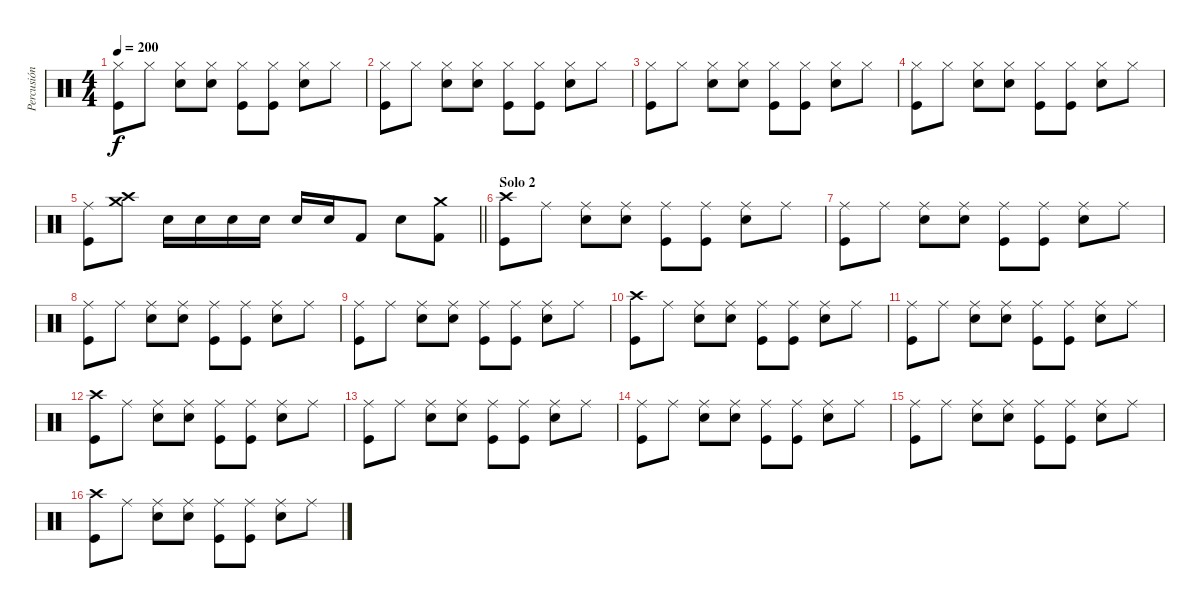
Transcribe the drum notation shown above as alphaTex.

\track ("Percusión" "Percusión") {instrument percussion}
\staff {score}
\articulation defaults
\ts (4 4)
\tempo 200
\clef neutral
\ks c
("Hi-Hat (closed)" "Kick (hit)").8{dy f} "Hi-Hat (closed)".8 ("Hi-Hat (closed)" "Snare (hit) 2").8 ("Hi-Hat (closed)" "Snare (hit) 2").8 ("Hi-Hat (closed)" "Kick (hit)").8 ("Hi-Hat (closed)" "Kick (hit)").8 ("Hi-Hat (closed)" "Snare (hit) 2").8 "Hi-Hat (closed)".8 |
("Hi-Hat (closed)" "Kick (hit)").8 "Hi-Hat (closed)".8 ("Hi-Hat (closed)" "Snare (hit) 2").8 ("Hi-Hat (closed)" "Snare (hit) 2").8 ("Hi-Hat (closed)" "Kick (hit)").8 ("Hi-Hat (closed)" "Kick (hit)").8 ("Hi-Hat (closed)" "Snare (hit) 2").8 "Hi-Hat (closed)".8 |
("Hi-Hat (closed)" "Kick (hit)").8 "Hi-Hat (closed)".8 ("Hi-Hat (closed)" "Snare (hit) 2").8 ("Hi-Hat (closed)" "Snare (hit) 2").8 ("Hi-Hat (closed)" "Kick (hit)").8 ("Hi-Hat (closed)" "Kick (hit)").8 ("Hi-Hat (closed)" "Snare (hit) 2").8 "Hi-Hat (closed)".8 |
("Hi-Hat (closed)" "Kick (hit)").8 "Hi-Hat (closed)".8 ("Hi-Hat (closed)" "Snare (hit) 2").8 ("Hi-Hat (closed)" "Snare (hit) 2").8 ("Hi-Hat (closed)" "Kick (hit)").8 ("Hi-Hat (closed)" "Kick (hit)").8 ("Hi-Hat (closed)" "Snare (hit) 2").8 "Hi-Hat (closed)".8 |
\barLineRight lightlight
("Ride (middle)" "Kick (hit)").8 ("Crash high (hit)" "Crash medium (hit)").8 "Snare (hit) 2".16 "Snare (hit) 2".16 "Snare (hit) 2".16 "Snare (hit) 2".16 "Snare (hit) 2".16 "Snare (hit) 2".16 "Kick (hit) 2".8 "Snare (hit) 2".8 ("Crash medium (hit)" "Kick (hit) 2").8 |
\section ("" "Solo 2")
("Crash high (hit)" "Kick (hit)").8 "Ride (middle)".8 ("Ride (middle)" "Snare (hit) 2").8 ("Ride (middle)" "Snare (hit) 2").8 ("Ride (middle)" "Kick (hit)").8 ("Ride (middle)" "Kick (hit)").8 ("Ride (middle)" "Snare (hit) 2").8 "Ride (middle)".8 |
("Ride (middle)" "Kick (hit)").8 "Ride (middle)".8 ("Ride (middle)" "Snare (hit) 2").8 ("Ride (middle)" "Snare (hit) 2").8 ("Ride (middle)" "Kick (hit)").8 ("Ride (middle)" "Kick (hit)").8 ("Ride (middle)" "Snare (hit) 2").8 "Ride (middle)".8 |
("Ride (middle)" "Kick (hit)").8 "Ride (middle)".8 ("Ride (middle)" "Snare (hit) 2").8 ("Ride (middle)" "Snare (hit) 2").8 ("Ride (middle)" "Kick (hit)").8 ("Ride (middle)" "Kick (hit)").8 ("Ride (middle)" "Snare (hit) 2").8 "Ride (middle)".8 |
("Ride (middle)" "Kick (hit)").8 "Ride (middle)".8 ("Ride (middle)" "Snare (hit) 2").8 ("Ride (middle)" "Snare (hit) 2").8 ("Ride (middle)" "Kick (hit)").8 ("Ride (middle)" "Kick (hit)").8 ("Ride (middle)" "Snare (hit) 2").8 "Ride (middle)".8 |
("Crash high (hit)" "Kick (hit)").8 "Ride (middle)".8 ("Ride (middle)" "Snare (hit) 2").8 ("Ride (middle)" "Snare (hit) 2").8 ("Ride (middle)" "Kick (hit)").8 ("Ride (middle)" "Kick (hit)").8 ("Ride (middle)" "Snare (hit) 2").8 "Ride (middle)".8 |
("Ride (middle)" "Kick (hit)").8 "Ride (middle)".8 ("Ride (middle)" "Snare (hit) 2").8 ("Ride (middle)" "Snare (hit) 2").8 ("Ride (middle)" "Kick (hit)").8 ("Ride (middle)" "Kick (hit)").8 ("Ride (middle)" "Snare (hit) 2").8 "Ride (middle)".8 |
("Crash high (hit)" "Kick (hit)").8 "Ride (middle)".8 ("Ride (middle)" "Snare (hit) 2").8 ("Ride (middle)" "Snare (hit) 2").8 ("Ride (middle)" "Kick (hit)").8 ("Ride (middle)" "Kick (hit)").8 ("Ride (middle)" "Snare (hit) 2").8 "Ride (middle)".8 |
("Ride (middle)" "Kick (hit)").8 "Ride (middle)".8 ("Ride (middle)" "Snare (hit) 2").8 ("Ride (middle)" "Snare (hit) 2").8 ("Ride (middle)" "Kick (hit)").8 ("Ride (middle)" "Kick (hit)").8 ("Ride (middle)" "Snare (hit) 2").8 "Ride (middle)".8 |
("Ride (middle)" "Kick (hit)").8 "Ride (middle)".8 ("Ride (middle)" "Snare (hit) 2").8 ("Ride (middle)" "Snare (hit) 2").8 ("Ride (middle)" "Kick (hit)").8 ("Ride (middle)" "Kick (hit)").8 ("Ride (middle)" "Snare (hit) 2").8 "Ride (middle)".8 |
("Ride (middle)" "Kick (hit)").8 "Ride (middle)".8 ("Ride (middle)" "Snare (hit) 2").8 ("Ride (middle)" "Snare (hit) 2").8 ("Ride (middle)" "Kick (hit)").8 ("Ride (middle)" "Kick (hit)").8 ("Ride (middle)" "Snare (hit) 2").8 "Ride (middle)".8 |
("Crash high (hit)" "Kick (hit)").8 "Ride (middle)".8 ("Ride (middle)" "Snare (hit) 2").8 ("Ride (middle)" "Snare (hit) 2").8 ("Ride (middle)" "Kick (hit)").8 ("Ride (middle)" "Kick (hit)").8 ("Ride (middle)" "Snare (hit) 2").8 "Ride (middle)".8
